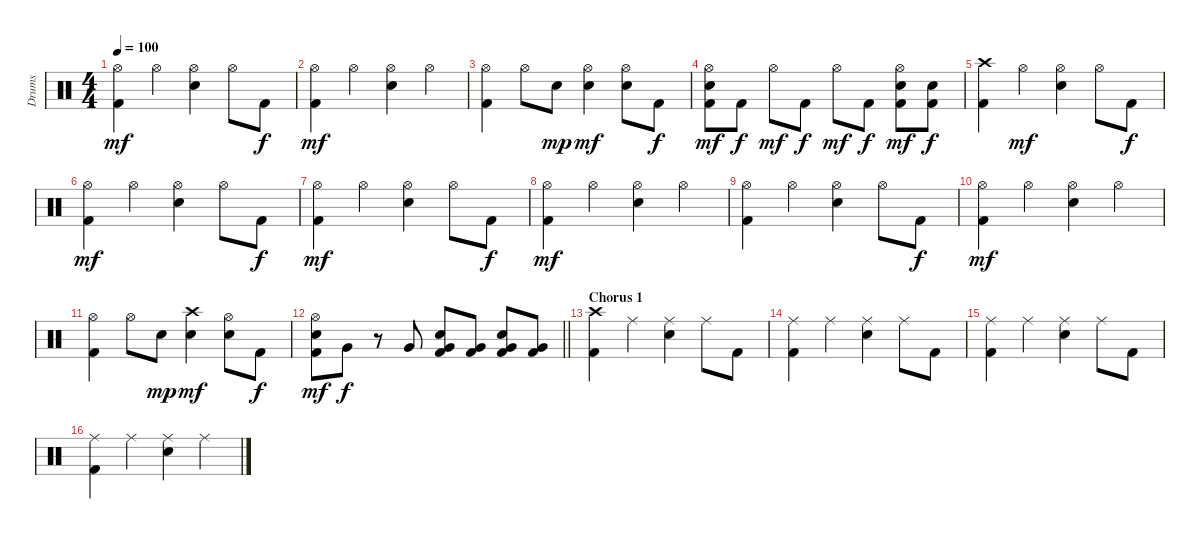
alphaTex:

\track ("Drums" "Drums") {instrument percussion}
\staff {score}
\articulation defaults
\ts (4 4)
\tempo 100
\clef neutral
\ks c
("Hi-Hat (open)" "Kick (hit) 2").4{dy mf} "Hi-Hat (open)".4 ("Hi-Hat (open)" "Electric Snare (hit)").4 "Hi-Hat (open)".8 "Kick (hit) 2".8{dy f} |
("Hi-Hat (open)" "Kick (hit) 2").4{dy mf} "Hi-Hat (open)".4 ("Hi-Hat (open)" "Electric Snare (hit)").4 "Hi-Hat (open)".4 |
("Hi-Hat (open)" "Kick (hit) 2").4 "Hi-Hat (open)".8 "Electric Snare (hit)".8{dy mp} ("Hi-Hat (open)" "Electric Snare (hit)").4{dy mf} ("Hi-Hat (open)" "Electric Snare (hit)").8 "Kick (hit) 2".8{dy f} |
("Hi-Hat (open)" "Electric Snare (hit)" "Kick (hit) 2").8{dy mf} "Kick (hit) 2".8{dy f} "Hi-Hat (open)".8{dy mf} "Kick (hit) 2".8{dy f} "Hi-Hat (open)".8{dy mf} "Kick (hit) 2".8{dy f} ("Hi-Hat (open)" "Electric Snare (hit)" "Kick (hit) 2").8{dy mf} ("Electric Snare (hit)" "Kick (hit) 2").8{dy f} |
("Crash high (hit)" "Kick (hit) 2").4 "Hi-Hat (open)".4{dy mf} ("Hi-Hat (open)" "Electric Snare (hit)").4 "Hi-Hat (open)".8 "Kick (hit) 2".8{dy f} |
("Hi-Hat (open)" "Kick (hit) 2").4{dy mf} "Hi-Hat (open)".4 ("Hi-Hat (open)" "Electric Snare (hit)").4 "Hi-Hat (open)".8 "Kick (hit) 2".8{dy f} |
("Hi-Hat (open)" "Kick (hit) 2").4{dy mf} "Hi-Hat (open)".4 ("Hi-Hat (open)" "Electric Snare (hit)").4 "Hi-Hat (open)".8 "Kick (hit) 2".8{dy f} |
("Hi-Hat (open)" "Kick (hit) 2").4{dy mf} "Hi-Hat (open)".4 ("Hi-Hat (open)" "Electric Snare (hit)").4 "Hi-Hat (open)".4 |
("Hi-Hat (open)" "Kick (hit) 2").4 "Hi-Hat (open)".4 ("Hi-Hat (open)" "Electric Snare (hit)").4 "Hi-Hat (open)".8 "Kick (hit) 2".8{dy f} |
("Hi-Hat (open)" "Kick (hit) 2").4{dy mf} "Hi-Hat (open)".4 ("Hi-Hat (open)" "Electric Snare (hit)").4 "Hi-Hat (open)".4 |
("Hi-Hat (open)" "Kick (hit) 2").4 "Hi-Hat (open)".8 "Electric Snare (hit)".8{dy mp} ("Crash high (hit)" "Electric Snare (hit)").4{dy mf} ("Hi-Hat (open)" "Electric Snare (hit)").8 "Kick (hit) 2".8{dy f} |
\barLineRight lightlight
("Hi-Hat (open)" "Electric Snare (hit)" "Kick (hit) 2").8{dy mf} "Very Low Tom (hit)".8{dy f} r.8 "Very Low Tom (hit)".8 ("Very Low Tom (hit)" "Electric Snare (hit)" "Kick (hit) 2").8 ("Very Low Tom (hit)" "Kick (hit) 2").8 ("Very Low Tom (hit)" "Electric Snare (hit)" "Kick (hit) 2").8 ("Very Low Tom (hit)" "Kick (hit) 2").8 |
\section ("" "Chorus 1")
("Crash high (hit)" "Kick (hit) 2").4 "Ride (middle)".4 ("Ride (middle)" "Electric Snare (hit)").4 "Ride (middle)".8 "Kick (hit) 2".8 |
("Ride (middle)" "Kick (hit) 2").4 "Ride (middle)".4 ("Ride (middle)" "Electric Snare (hit)").4 "Ride (middle)".8 "Kick (hit) 2".8 |
("Ride (middle)" "Kick (hit) 2").4 "Ride (middle)".4 ("Ride (middle)" "Electric Snare (hit)").4 "Ride (middle)".8 "Kick (hit) 2".8 |
("Ride (middle)" "Kick (hit) 2").4 "Ride (middle)".4 ("Ride (middle)" "Electric Snare (hit)").4 "Ride (middle)".4
